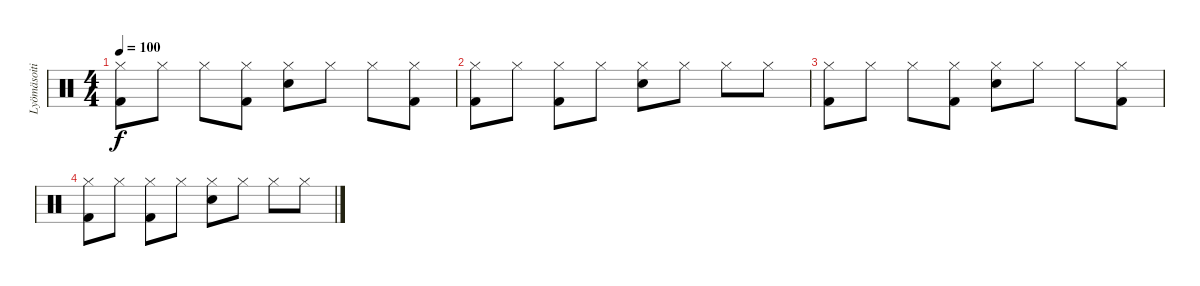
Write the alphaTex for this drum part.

\track ("Lyömäsoitin" "Lyömäsoiti") {instrument percussion}
\staff {score}
\articulation defaults
\ts (4 4)
\tempo 100
\clef neutral
\ks c
("Hi-Hat (closed)" "Kick (hit) 2").8{dy f} "Hi-Hat (closed)".8 "Hi-Hat (closed)".8 ("Hi-Hat (closed)" "Kick (hit) 2").8 ("Hi-Hat (closed)" "Snare (hit) 2").8 "Hi-Hat (closed)".8 "Hi-Hat (closed)".8 ("Hi-Hat (closed)" "Kick (hit) 2").8 |
("Hi-Hat (closed)" "Kick (hit) 2").8 "Hi-Hat (closed)".8 ("Hi-Hat (closed)" "Kick (hit) 2").8 "Hi-Hat (closed)".8 ("Hi-Hat (closed)" "Snare (hit) 2").8 "Hi-Hat (closed)".8 "Hi-Hat (closed)".8 "Hi-Hat (closed)".8 |
("Hi-Hat (closed)" "Kick (hit) 2").8 "Hi-Hat (closed)".8 "Hi-Hat (closed)".8 ("Hi-Hat (closed)" "Kick (hit) 2").8 ("Hi-Hat (closed)" "Snare (hit) 2").8 "Hi-Hat (closed)".8 "Hi-Hat (closed)".8 ("Hi-Hat (closed)" "Kick (hit) 2").8 |
("Hi-Hat (closed)" "Kick (hit) 2").8 "Hi-Hat (closed)".8 ("Hi-Hat (closed)" "Kick (hit) 2").8 "Hi-Hat (closed)".8 ("Hi-Hat (closed)" "Snare (hit) 2").8 "Hi-Hat (closed)".8 "Hi-Hat (closed)".8 "Hi-Hat (closed)".8
